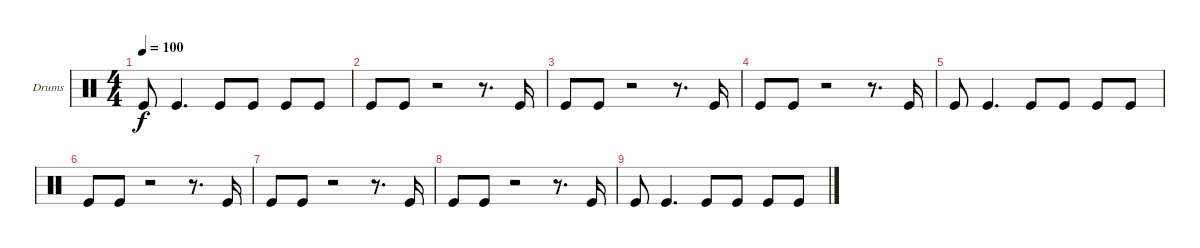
\bracketExtendMode groupsimilarinstruments
\firstSystemTrackNameOrientation horizontal
\otherSystemsTrackNameOrientation horizontal
\track ("Drums overdubbed" "Drums") {instrument percussion}
\staff {score}
\articulation defaults
\ts (4 4)
\tempo 100
\clef neutral
\ks c "Kick (hit)".8{dy f} "Kick (hit)".4{d} "Kick (hit)".8 "Kick (hit)".8 "Kick (hit)".8 "Kick (hit)".8
|
"Kick (hit)".8 "Kick (hit)".8 r.2 r.8{d} "Kick (hit)".16 |
"Kick (hit)".8 "Kick (hit)".8 r.2 r.8{d} "Kick (hit)".16 |
"Kick (hit)".8 "Kick (hit)".8 r.2 r.8{d} "Kick (hit)".16 |
"Kick (hit)".8 "Kick (hit)".4{d} "Kick (hit)".8 "Kick (hit)".8 "Kick (hit)".8 "Kick (hit)".8 |
"Kick (hit)".8 "Kick (hit)".8 r.2 r.8{d} "Kick (hit)".16 |
"Kick (hit)".8 "Kick (hit)".8 r.2 r.8{d} "Kick (hit)".16 |
"Kick (hit)".8 "Kick (hit)".8 r.2 r.8{d} "Kick (hit)".16 |
"Kick (hit)".8 "Kick (hit)".4{d} "Kick (hit)".8 "Kick (hit)".8 "Kick (hit)".8 "Kick (hit)".8
